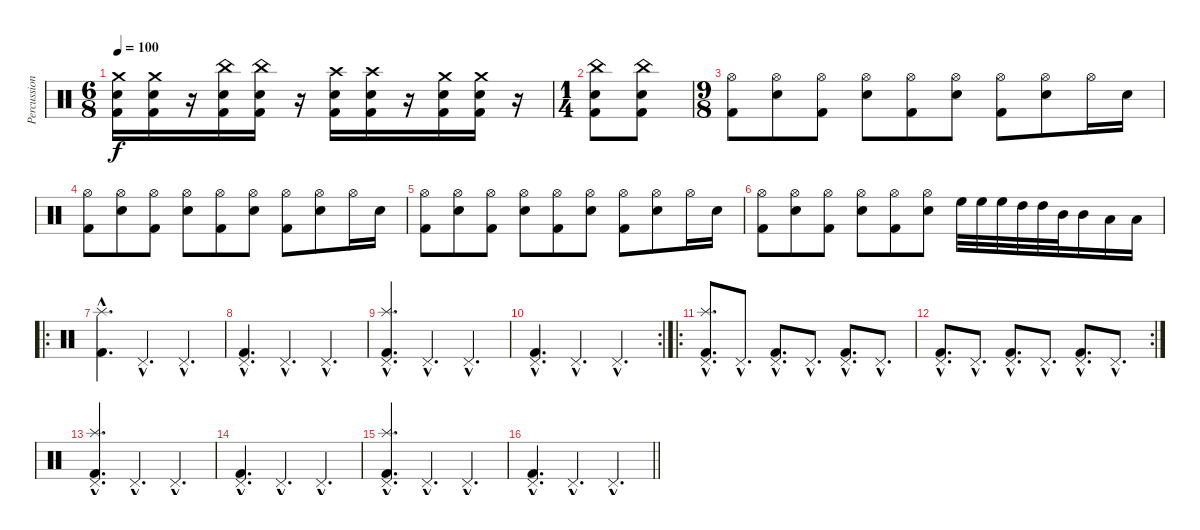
\track ("Percussion" "Percussion") {instrument percussion}
\staff {score}
\articulation defaults
\ts (6 8)
\tempo 100
\clef neutral
\ks c
("Crash medium (hit)" "Electric Snare (hit)" "Kick (hit) 2").16{dy f} ("Crash medium (hit)" "Electric Snare (hit)" "Kick (hit) 2").16 r.16 ("China (hit)" "Electric Snare (hit)" "Kick (hit) 2").16 ("China (hit)" "Electric Snare (hit)" "Kick (hit) 2").16 r.16 ("Crash high (hit)" "Electric Snare (hit)" "Kick (hit) 2").16 ("Crash high (hit)" "Electric Snare (hit)" "Kick (hit) 2").16 r.16 ("Crash medium (hit)" "Electric Snare (hit)" "Kick (hit) 2").16 ("Crash medium (hit)" "Electric Snare (hit)" "Kick (hit) 2").16 r.16 |
\ts (1 4)
("China (hit)" "Electric Snare (hit)" "Kick (hit) 2").8 ("China (hit)" "Electric Snare (hit)" "Kick (hit) 2").8 |
\ts (9 8)
("Hi-Hat (open)" "Kick (hit) 2").8 ("Hi-Hat (open)" "Electric Snare (hit)").8 ("Hi-Hat (open)" "Kick (hit) 2").8 ("Hi-Hat (open)" "Electric Snare (hit)").8 ("Hi-Hat (open)" "Kick (hit) 2").8 ("Hi-Hat (open)" "Electric Snare (hit)").8 ("Hi-Hat (open)" "Kick (hit) 2").8 ("Hi-Hat (open)" "Electric Snare (hit)").8 "Hi-Hat (open)".16 "Electric Snare (hit)".16 |
("Hi-Hat (open)" "Kick (hit) 2").8 ("Hi-Hat (open)" "Electric Snare (hit)").8 ("Hi-Hat (open)" "Kick (hit) 2").8 ("Hi-Hat (open)" "Electric Snare (hit)").8 ("Hi-Hat (open)" "Kick (hit) 2").8 ("Hi-Hat (open)" "Electric Snare (hit)").8 ("Hi-Hat (open)" "Kick (hit) 2").8 ("Hi-Hat (open)" "Electric Snare (hit)").8 "Hi-Hat (open)".16 "Electric Snare (hit)".16 |
("Hi-Hat (open)" "Kick (hit) 2").8 ("Hi-Hat (open)" "Electric Snare (hit)").8 ("Hi-Hat (open)" "Kick (hit) 2").8 ("Hi-Hat (open)" "Electric Snare (hit)").8 ("Hi-Hat (open)" "Kick (hit) 2").8 ("Hi-Hat (open)" "Electric Snare (hit)").8 ("Hi-Hat (open)" "Kick (hit) 2").8 ("Hi-Hat (open)" "Electric Snare (hit)").8 "Hi-Hat (open)".16 "Electric Snare (hit)".16 |
("Hi-Hat (open)" "Kick (hit) 2").8 ("Hi-Hat (open)" "Electric Snare (hit)").8 ("Hi-Hat (open)" "Kick (hit) 2").8 ("Hi-Hat (open)" "Electric Snare (hit)").8 ("Hi-Hat (open)" "Kick (hit) 2").8 ("Hi-Hat (open)" "Electric Snare (hit)").8 "High Floor Tom (hit)".32 "High Floor Tom (hit)".32 "High Floor Tom (hit)".32 "High Tom (hit)".32 "High Tom (hit)".32 "Mid Tom (hit)".32 "Mid Tom (hit)".16 "Low Tom (hit)".16 "Low Tom (hit)".16 |
\ro
("Splash (hit)"{hac} "Kick (hit) 2"{hac}).4{d} "Pedal Hi-Hat (hit)"{hac}.4{d} "Pedal Hi-Hat (hit)"{hac}.4{d} |
("Pedal Hi-Hat (hit)"{hac} "Kick (hit) 2"{hac}).4{d} "Pedal Hi-Hat (hit)"{hac}.4{d} "Pedal Hi-Hat (hit)"{hac}.4{d} |
("Pedal Hi-Hat (hit)"{hac} "Splash (hit)"{hac} "Kick (hit) 2"{hac}).4{d} "Pedal Hi-Hat (hit)"{hac}.4{d} "Pedal Hi-Hat (hit)"{hac}.4{d} |
\rc 2
("Pedal Hi-Hat (hit)"{hac} "Kick (hit) 2"{hac}).4{d} "Pedal Hi-Hat (hit)"{hac}.4{d} "Pedal Hi-Hat (hit)"{hac}.4{d} |
\ro
("Pedal Hi-Hat (hit)"{hac} "Splash (hit)"{hac} "Kick (hit) 2"{hac}).8{d} "Pedal Hi-Hat (hit)"{hac}.8{d} ("Pedal Hi-Hat (hit)"{hac} "Kick (hit) 2"{hac}).8{d} "Pedal Hi-Hat (hit)"{hac}.8{d} ("Pedal Hi-Hat (hit)"{hac} "Kick (hit) 2"{hac}).8{d} "Pedal Hi-Hat (hit)"{hac}.8{d} |
\rc 2
("Pedal Hi-Hat (hit)"{hac} "Kick (hit) 2"{hac}).8{d} "Pedal Hi-Hat (hit)"{hac}.8{d} ("Pedal Hi-Hat (hit)"{hac} "Kick (hit) 2"{hac}).8{d} "Pedal Hi-Hat (hit)"{hac}.8{d} ("Pedal Hi-Hat (hit)"{hac} "Kick (hit) 2"{hac}).8{d} "Pedal Hi-Hat (hit)"{hac}.8{d} |
("Pedal Hi-Hat (hit)"{hac} "Splash (hit)"{hac} "Kick (hit) 2"{hac}).4{d} "Pedal Hi-Hat (hit)"{hac}.4{d} "Pedal Hi-Hat (hit)"{hac}.4{d} |
("Pedal Hi-Hat (hit)"{hac} "Kick (hit) 2"{hac}).4{d} "Pedal Hi-Hat (hit)"{hac}.4{d} "Pedal Hi-Hat (hit)"{hac}.4{d} |
("Pedal Hi-Hat (hit)"{hac} "Splash (hit)"{hac} "Kick (hit) 2"{hac}).4{d} "Pedal Hi-Hat (hit)"{hac}.4{d} "Pedal Hi-Hat (hit)"{hac}.4{d} |
\barLineRight lightlight
("Pedal Hi-Hat (hit)"{hac} "Kick (hit) 2"{hac}).4{d} "Pedal Hi-Hat (hit)"{hac}.4{d} "Pedal Hi-Hat (hit)"{hac}.4{d}
